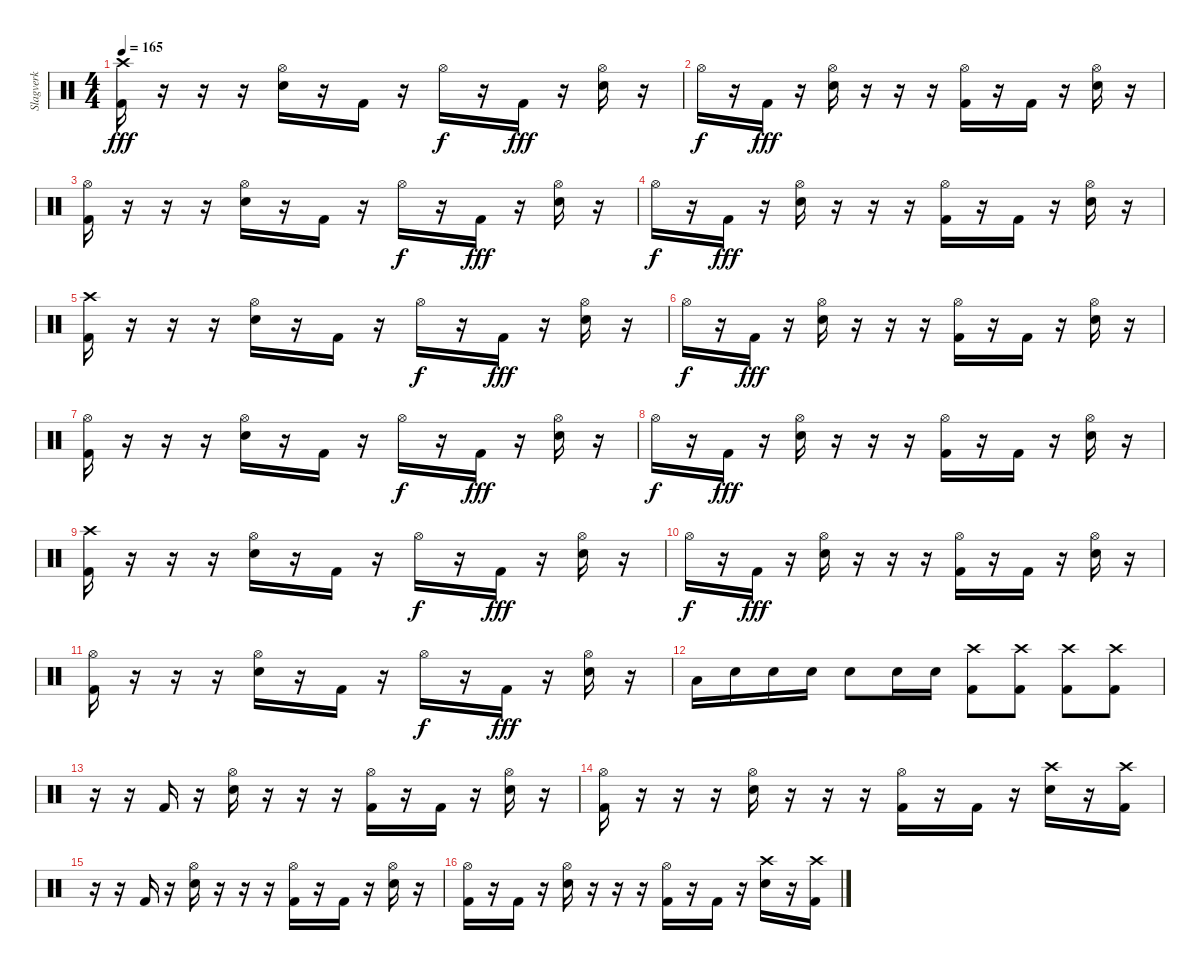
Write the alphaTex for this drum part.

\track ("Slagverk" "Slagverk") {instrument percussion}
\staff {score}
\articulation defaults
\ts (4 4)
\tempo 165
\clef neutral
\ks c
("Crash high (hit)" "Kick (hit) 2").16{dy fff} r.16 r.16 r.16 ("Hi-Hat (open)" "Electric Snare (hit)").16 r.16 "Kick (hit) 2".16 r.16 "Hi-Hat (open)".16{dy f} r.16 "Kick (hit) 2".16{dy fff} r.16 ("Hi-Hat (open)" "Electric Snare (hit)").16 r.16 |
"Hi-Hat (open)".16{dy f} r.16 "Kick (hit) 2".16{dy fff} r.16 ("Hi-Hat (open)" "Electric Snare (hit)").16 r.16 r.16 r.16 ("Hi-Hat (open)" "Kick (hit) 2").16 r.16 "Kick (hit) 2".16 r.16 ("Hi-Hat (open)" "Electric Snare (hit)").16 r.16 |
("Hi-Hat (open)" "Kick (hit) 2").16 r.16 r.16 r.16 ("Hi-Hat (open)" "Electric Snare (hit)").16 r.16 "Kick (hit) 2".16 r.16 "Hi-Hat (open)".16{dy f} r.16 "Kick (hit) 2".16{dy fff} r.16 ("Hi-Hat (open)" "Electric Snare (hit)").16 r.16 |
"Hi-Hat (open)".16{dy f} r.16 "Kick (hit) 2".16{dy fff} r.16 ("Hi-Hat (open)" "Electric Snare (hit)").16 r.16 r.16 r.16 ("Hi-Hat (open)" "Kick (hit) 2").16 r.16 "Kick (hit) 2".16 r.16 ("Hi-Hat (open)" "Electric Snare (hit)").16 r.16 |
("Crash high (hit)" "Kick (hit) 2").16 r.16 r.16 r.16 ("Hi-Hat (open)" "Electric Snare (hit)").16 r.16 "Kick (hit) 2".16 r.16 "Hi-Hat (open)".16{dy f} r.16 "Kick (hit) 2".16{dy fff} r.16 ("Hi-Hat (open)" "Electric Snare (hit)").16 r.16 |
"Hi-Hat (open)".16{dy f} r.16 "Kick (hit) 2".16{dy fff} r.16 ("Hi-Hat (open)" "Electric Snare (hit)").16 r.16 r.16 r.16 ("Hi-Hat (open)" "Kick (hit) 2").16 r.16 "Kick (hit) 2".16 r.16 ("Hi-Hat (open)" "Electric Snare (hit)").16 r.16 |
("Hi-Hat (open)" "Kick (hit) 2").16 r.16 r.16 r.16 ("Hi-Hat (open)" "Electric Snare (hit)").16 r.16 "Kick (hit) 2".16 r.16 "Hi-Hat (open)".16{dy f} r.16 "Kick (hit) 2".16{dy fff} r.16 ("Hi-Hat (open)" "Electric Snare (hit)").16 r.16 |
"Hi-Hat (open)".16{dy f} r.16 "Kick (hit) 2".16{dy fff} r.16 ("Hi-Hat (open)" "Electric Snare (hit)").16 r.16 r.16 r.16 ("Hi-Hat (open)" "Kick (hit) 2").16 r.16 "Kick (hit) 2".16 r.16 ("Hi-Hat (open)" "Electric Snare (hit)").16 r.16 |
("Crash high (hit)" "Kick (hit) 2").16 r.16 r.16 r.16 ("Hi-Hat (open)" "Electric Snare (hit)").16 r.16 "Kick (hit) 2".16 r.16 "Hi-Hat (open)".16{dy f} r.16 "Kick (hit) 2".16{dy fff} r.16 ("Hi-Hat (open)" "Electric Snare (hit)").16 r.16 |
"Hi-Hat (open)".16{dy f} r.16 "Kick (hit) 2".16{dy fff} r.16 ("Hi-Hat (open)" "Electric Snare (hit)").16 r.16 r.16 r.16 ("Hi-Hat (open)" "Kick (hit) 2").16 r.16 "Kick (hit) 2".16 r.16 ("Hi-Hat (open)" "Electric Snare (hit)").16 r.16 |
("Hi-Hat (open)" "Kick (hit) 2").16 r.16 r.16 r.16 ("Hi-Hat (open)" "Electric Snare (hit)").16 r.16 "Kick (hit) 2".16 r.16 "Hi-Hat (open)".16{dy f} r.16 "Kick (hit) 2".16{dy fff} r.16 ("Hi-Hat (open)" "Electric Snare (hit)").16 r.16 |
"Low Tom (hit)".16 "Electric Snare (hit)".16 "Electric Snare (hit)".16 "Electric Snare (hit)".16 "Electric Snare (hit)".8 "Electric Snare (hit)".16 "Electric Snare (hit)".16 ("Crash high (hit)" "Kick (hit) 2").8 ("Crash high (hit)" "Kick (hit) 2").8 ("Crash high (hit)" "Kick (hit) 2").8 ("Crash high (hit)" "Kick (hit) 2").8 |
r.16 r.16 "Kick (hit) 2".16 r.16 ("Hi-Hat (open)" "Electric Snare (hit)").16 r.16 r.16 r.16 ("Hi-Hat (open)" "Kick (hit) 2").16 r.16 "Kick (hit) 2".16 r.16 ("Hi-Hat (open)" "Electric Snare (hit)").16 r.16 |
("Hi-Hat (open)" "Kick (hit) 2").16 r.16 r.16 r.16 ("Hi-Hat (open)" "Electric Snare (hit)").16 r.16 r.16 r.16 ("Hi-Hat (open)" "Kick (hit) 2").16 r.16 "Kick (hit) 2".16 r.16 ("Crash high (hit)" "Electric Snare (hit)").16 r.16 ("Crash high (hit)" "Kick (hit) 2").16 |
r.16 r.16 "Kick (hit) 2".16 r.16 ("Hi-Hat (open)" "Electric Snare (hit)").16 r.16 r.16 r.16 ("Hi-Hat (open)" "Kick (hit) 2").16 r.16 "Kick (hit) 2".16 r.16 ("Hi-Hat (open)" "Electric Snare (hit)").16 r.16 |
("Hi-Hat (open)" "Kick (hit) 2").16 r.16 "Kick (hit) 2".16 r.16 ("Hi-Hat (open)" "Electric Snare (hit)").16 r.16 r.16 r.16 ("Hi-Hat (open)" "Kick (hit) 2").16 r.16 "Kick (hit) 2".16 r.16 ("Crash high (hit)" "Electric Snare (hit)").16 r.16 ("Crash high (hit)" "Kick (hit) 2").16
